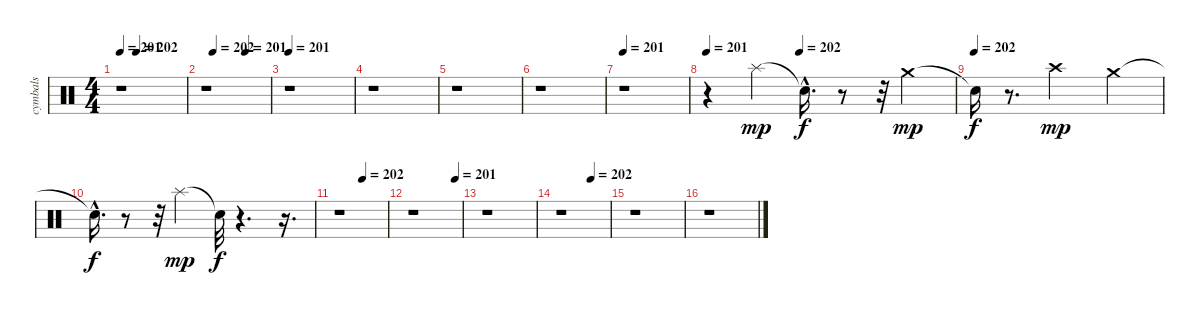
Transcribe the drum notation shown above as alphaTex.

\track ("cymbals" "cymbals") {instrument percussion}
\staff {score}
\articulation defaults
\ts (4 4)
\tempo 201
\tempo (202 0.25)
\clef neutral
\ks c
r.1{dy f} |
\tempo (202 0.125)
\tempo (201 0.625)
r.1 |
\tempo 201
r.1 |
r.1 |
r.1 |
r.1 |
\tempo 201
r.1 |
\tempo 201
\tempo (202 0.375)
r.4 "Splash (hit)".4{dy mp} "Snare (hit)"{hac t}.16{d dy f} r.8 r.32 "Crash medium (hit)".4{dy mp} |
\tempo (202)
"Snare (hit)"{t}.16{dy f} r.8{d} "Crash high (hit)".2{dy mp} "Crash medium (hit)".4 |
"Snare (hit)"{hac t}.16{d dy f} r.8 r.32 "Splash (hit)".4{dy mp} "Snare (hit)"{t}.32{dy f} r.4{d} r.16{d} |
\tempo (202 0.5)
r.1 |
\tempo (201 0.875)
r.1 |
r.1 |
\tempo (202 0.625)
r.1 |
r.1 |
r.1
